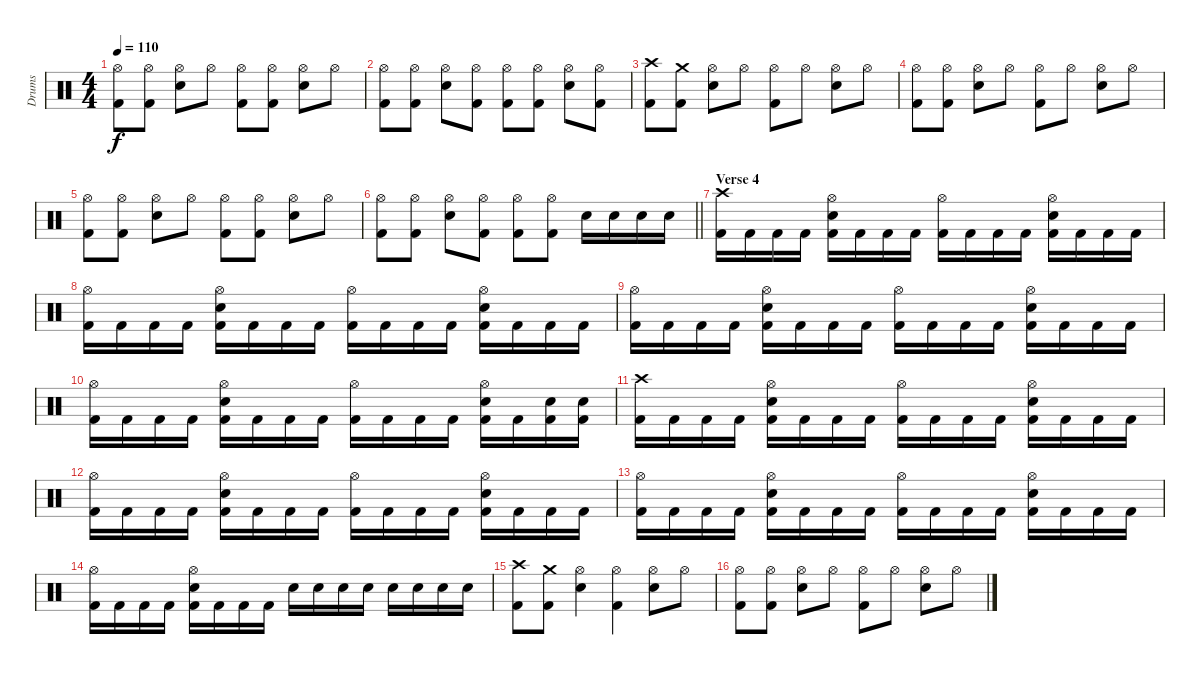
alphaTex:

\track ("Drums" "Drums") {instrument percussion}
\staff {score}
\articulation defaults
\ts (4 4)
\tempo 110
\clef neutral
\ks c
("Hi-Hat (open)" "Kick (hit) 2").8{dy f} ("Hi-Hat (open)" "Kick (hit) 2").8 ("Hi-Hat (open)" "Electric Snare (hit)").8 "Hi-Hat (open)".8 ("Hi-Hat (open)" "Kick (hit) 2").8 ("Hi-Hat (open)" "Kick (hit) 2").8 ("Hi-Hat (open)" "Electric Snare (hit)").8 "Hi-Hat (open)".8 |
("Hi-Hat (open)" "Kick (hit) 2").8 ("Hi-Hat (open)" "Kick (hit) 2").8 ("Hi-Hat (open)" "Electric Snare (hit)").8 ("Hi-Hat (open)" "Kick (hit) 2").8 ("Hi-Hat (open)" "Kick (hit) 2").8 ("Hi-Hat (open)" "Kick (hit) 2").8 ("Hi-Hat (open)" "Electric Snare (hit)").8 ("Hi-Hat (open)" "Kick (hit) 2").8 |
("Crash high (hit)" "Kick (hit) 2").8 ("Crash medium (hit)" "Kick (hit) 2").8 ("Hi-Hat (open)" "Electric Snare (hit)").8 "Hi-Hat (open)".8 ("Hi-Hat (open)" "Kick (hit) 2").8 "Hi-Hat (open)".8 ("Hi-Hat (open)" "Electric Snare (hit)").8 "Hi-Hat (open)".8 |
("Hi-Hat (open)" "Kick (hit) 2").8 ("Hi-Hat (open)" "Kick (hit) 2").8 ("Hi-Hat (open)" "Electric Snare (hit)").8 "Hi-Hat (open)".8 ("Hi-Hat (open)" "Kick (hit) 2").8 "Hi-Hat (open)".8 ("Hi-Hat (open)" "Electric Snare (hit)").8 "Hi-Hat (open)".8 |
("Hi-Hat (open)" "Kick (hit) 2").8 ("Hi-Hat (open)" "Kick (hit) 2").8 ("Hi-Hat (open)" "Electric Snare (hit)").8 "Hi-Hat (open)".8 ("Hi-Hat (open)" "Kick (hit) 2").8 ("Hi-Hat (open)" "Kick (hit) 2").8 ("Hi-Hat (open)" "Electric Snare (hit)").8 "Hi-Hat (open)".8 |
\barLineRight lightlight
("Hi-Hat (open)" "Kick (hit) 2").8 ("Hi-Hat (open)" "Kick (hit) 2").8 ("Hi-Hat (open)" "Electric Snare (hit)").8 ("Hi-Hat (open)" "Kick (hit) 2").8 ("Hi-Hat (open)" "Kick (hit) 2").8 ("Hi-Hat (open)" "Kick (hit) 2").8 "Electric Snare (hit)".16 "Electric Snare (hit)".16 "Electric Snare (hit)".16 "Electric Snare (hit)".16 |
\section ("" "Verse 4")
("Crash high (hit)" "Kick (hit) 2").16 "Kick (hit) 2".16 "Kick (hit) 2".16 "Kick (hit) 2".16 ("Hi-Hat (open)" "Electric Snare (hit)" "Kick (hit) 2").16 "Kick (hit) 2".16 "Kick (hit) 2".16 "Kick (hit) 2".16 ("Hi-Hat (open)" "Kick (hit) 2").16 "Kick (hit) 2".16 "Kick (hit) 2".16 "Kick (hit) 2".16 ("Hi-Hat (open)" "Electric Snare (hit)" "Kick (hit) 2").16 "Kick (hit) 2".16 "Kick (hit) 2".16 "Kick (hit) 2".16 |
("Hi-Hat (open)" "Kick (hit) 2").16 "Kick (hit) 2".16 "Kick (hit) 2".16 "Kick (hit) 2".16 ("Hi-Hat (open)" "Electric Snare (hit)" "Kick (hit) 2").16 "Kick (hit) 2".16 "Kick (hit) 2".16 "Kick (hit) 2".16 ("Hi-Hat (open)" "Kick (hit) 2").16 "Kick (hit) 2".16 "Kick (hit) 2".16 "Kick (hit) 2".16 ("Hi-Hat (open)" "Electric Snare (hit)" "Kick (hit) 2").16 "Kick (hit) 2".16 "Kick (hit) 2".16 "Kick (hit) 2".16 |
("Hi-Hat (open)" "Kick (hit) 2").16 "Kick (hit) 2".16 "Kick (hit) 2".16 "Kick (hit) 2".16 ("Hi-Hat (open)" "Electric Snare (hit)" "Kick (hit) 2").16 "Kick (hit) 2".16 "Kick (hit) 2".16 "Kick (hit) 2".16 ("Hi-Hat (open)" "Kick (hit) 2").16 "Kick (hit) 2".16 "Kick (hit) 2".16 "Kick (hit) 2".16 ("Hi-Hat (open)" "Electric Snare (hit)" "Kick (hit) 2").16 "Kick (hit) 2".16 "Kick (hit) 2".16 "Kick (hit) 2".16 |
("Hi-Hat (open)" "Kick (hit) 2").16 "Kick (hit) 2".16 "Kick (hit) 2".16 "Kick (hit) 2".16 ("Hi-Hat (open)" "Electric Snare (hit)" "Kick (hit) 2").16 "Kick (hit) 2".16 "Kick (hit) 2".16 "Kick (hit) 2".16 ("Hi-Hat (open)" "Kick (hit) 2").16 "Kick (hit) 2".16 "Kick (hit) 2".16 "Kick (hit) 2".16 ("Hi-Hat (open)" "Electric Snare (hit)" "Kick (hit) 2").16 "Kick (hit) 2".16 ("Electric Snare (hit)" "Kick (hit) 2").16 ("Electric Snare (hit)" "Kick (hit) 2").16 |
("Crash high (hit)" "Kick (hit) 2").16 "Kick (hit) 2".16 "Kick (hit) 2".16 "Kick (hit) 2".16 ("Hi-Hat (open)" "Electric Snare (hit)" "Kick (hit) 2").16 "Kick (hit) 2".16 "Kick (hit) 2".16 "Kick (hit) 2".16 ("Hi-Hat (open)" "Kick (hit) 2").16 "Kick (hit) 2".16 "Kick (hit) 2".16 "Kick (hit) 2".16 ("Hi-Hat (open)" "Electric Snare (hit)" "Kick (hit) 2").16 "Kick (hit) 2".16 "Kick (hit) 2".16 "Kick (hit) 2".16 |
("Hi-Hat (open)" "Kick (hit) 2").16 "Kick (hit) 2".16 "Kick (hit) 2".16 "Kick (hit) 2".16 ("Hi-Hat (open)" "Electric Snare (hit)" "Kick (hit) 2").16 "Kick (hit) 2".16 "Kick (hit) 2".16 "Kick (hit) 2".16 ("Hi-Hat (open)" "Kick (hit) 2").16 "Kick (hit) 2".16 "Kick (hit) 2".16 "Kick (hit) 2".16 ("Hi-Hat (open)" "Electric Snare (hit)" "Kick (hit) 2").16 "Kick (hit) 2".16 "Kick (hit) 2".16 "Kick (hit) 2".16 |
("Hi-Hat (open)" "Kick (hit) 2").16 "Kick (hit) 2".16 "Kick (hit) 2".16 "Kick (hit) 2".16 ("Hi-Hat (open)" "Electric Snare (hit)" "Kick (hit) 2").16 "Kick (hit) 2".16 "Kick (hit) 2".16 "Kick (hit) 2".16 ("Hi-Hat (open)" "Kick (hit) 2").16 "Kick (hit) 2".16 "Kick (hit) 2".16 "Kick (hit) 2".16 ("Hi-Hat (open)" "Electric Snare (hit)" "Kick (hit) 2").16 "Kick (hit) 2".16 "Kick (hit) 2".16 "Kick (hit) 2".16 |
("Hi-Hat (open)" "Kick (hit) 2").16 "Kick (hit) 2".16 "Kick (hit) 2".16 "Kick (hit) 2".16 ("Hi-Hat (open)" "Electric Snare (hit)" "Kick (hit) 2").16 "Kick (hit) 2".16 "Kick (hit) 2".16 "Kick (hit) 2".16 "Electric Snare (hit)".16 "Electric Snare (hit)".16 "Electric Snare (hit)".16 "Electric Snare (hit)".16 "Electric Snare (hit)".16 "Electric Snare (hit)".16 "Electric Snare (hit)".16 "Electric Snare (hit)".16 |
("Crash high (hit)" "Kick (hit) 2").8 ("Crash medium (hit)" "Kick (hit) 2").8 ("Hi-Hat (open)" "Electric Snare (hit)").4 ("Hi-Hat (open)" "Kick (hit) 2").4 ("Hi-Hat (open)" "Electric Snare (hit)").8 "Hi-Hat (open)".8 |
("Hi-Hat (open)" "Kick (hit) 2").8 ("Hi-Hat (open)" "Kick (hit) 2").8 ("Hi-Hat (open)" "Electric Snare (hit)").8 "Hi-Hat (open)".8 ("Hi-Hat (open)" "Kick (hit) 2").8 "Hi-Hat (open)".8 ("Hi-Hat (open)" "Electric Snare (hit)").8 "Hi-Hat (open)".8
